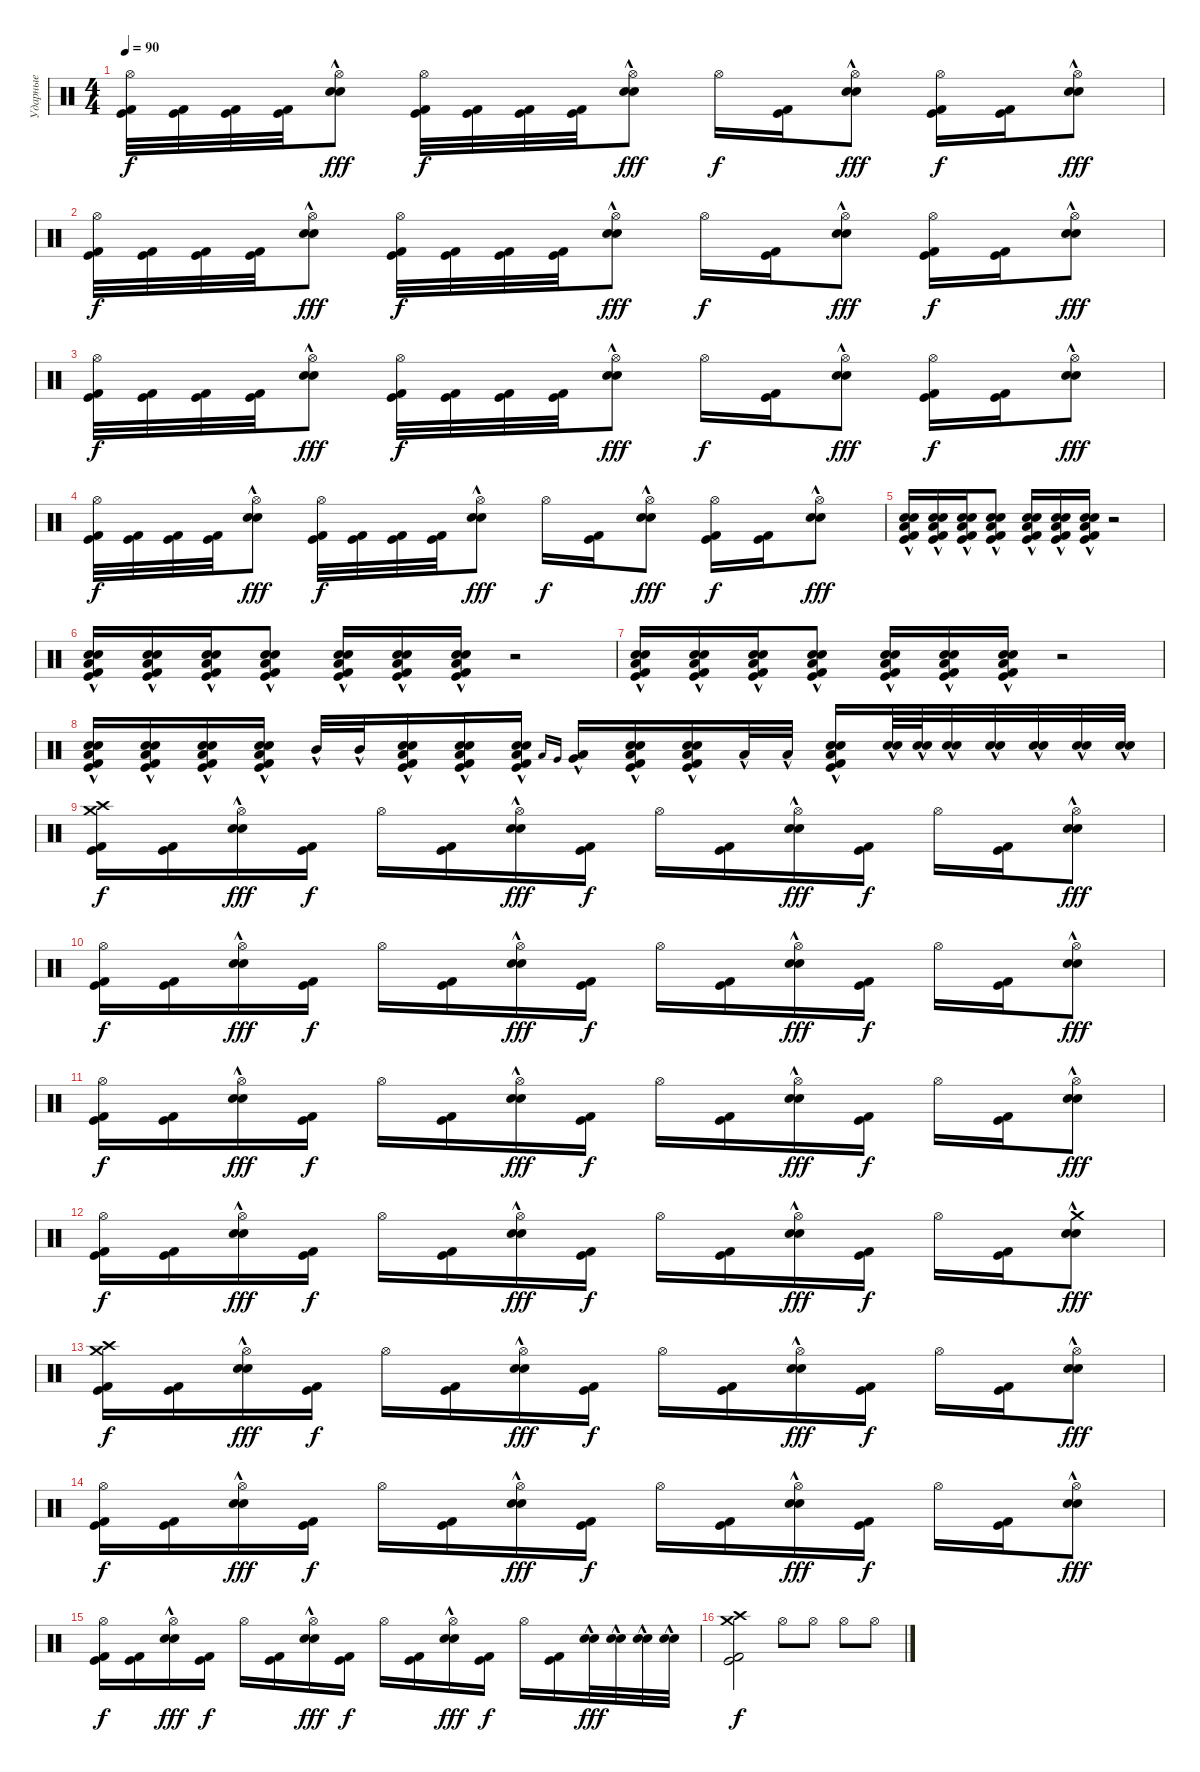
\track ("Ударные" "Ударные") {instrument percussion}
\staff {score}
\articulation defaults
\ts (4 4)
\tempo 90
\clef neutral
\ks c
("Hi-Hat (open)" "Kick (hit)" "Kick (hit) 2").32{dy f} ("Kick (hit)" "Kick (hit) 2").32 ("Kick (hit)" "Kick (hit) 2").32 ("Kick (hit)" "Kick (hit) 2").32 ("Hi-Hat (open)" "Snare (hit) 2"{hac} "Electric Snare (hit)"{hac}).8{dy fff} ("Hi-Hat (open)" "Kick (hit)" "Kick (hit) 2").32{dy f} ("Kick (hit)" "Kick (hit) 2").32 ("Kick (hit)" "Kick (hit) 2").32 ("Kick (hit)" "Kick (hit) 2").32 ("Hi-Hat (open)" "Snare (hit) 2"{hac} "Electric Snare (hit)"{hac}).8{dy fff} "Hi-Hat (open)".16{dy f} ("Kick (hit)" "Kick (hit) 2").16 ("Hi-Hat (open)" "Snare (hit) 2"{hac} "Electric Snare (hit)"{hac}).8{dy fff} ("Hi-Hat (open)" "Kick (hit)" "Kick (hit) 2").16{dy f} ("Kick (hit)" "Kick (hit) 2").16 ("Hi-Hat (open)" "Snare (hit) 2"{hac} "Electric Snare (hit)"{hac}).8{dy fff} |
("Hi-Hat (open)" "Kick (hit)" "Kick (hit) 2").32{dy f} ("Kick (hit)" "Kick (hit) 2").32 ("Kick (hit)" "Kick (hit) 2").32 ("Kick (hit)" "Kick (hit) 2").32 ("Hi-Hat (open)" "Snare (hit) 2"{hac} "Electric Snare (hit)"{hac}).8{dy fff} ("Hi-Hat (open)" "Kick (hit)" "Kick (hit) 2").32{dy f} ("Kick (hit)" "Kick (hit) 2").32 ("Kick (hit)" "Kick (hit) 2").32 ("Kick (hit)" "Kick (hit) 2").32 ("Hi-Hat (open)" "Snare (hit) 2"{hac} "Electric Snare (hit)"{hac}).8{dy fff} "Hi-Hat (open)".16{dy f} ("Kick (hit)" "Kick (hit) 2").16 ("Hi-Hat (open)" "Snare (hit) 2"{hac} "Electric Snare (hit)"{hac}).8{dy fff} ("Hi-Hat (open)" "Kick (hit)" "Kick (hit) 2").16{dy f} ("Kick (hit)" "Kick (hit) 2").16 ("Hi-Hat (open)" "Snare (hit) 2"{hac} "Electric Snare (hit)"{hac}).8{dy fff} |
("Hi-Hat (open)" "Kick (hit)" "Kick (hit) 2").32{dy f} ("Kick (hit)" "Kick (hit) 2").32 ("Kick (hit)" "Kick (hit) 2").32 ("Kick (hit)" "Kick (hit) 2").32 ("Hi-Hat (open)" "Snare (hit) 2"{hac} "Electric Snare (hit)"{hac}).8{dy fff} ("Hi-Hat (open)" "Kick (hit)" "Kick (hit) 2").32{dy f} ("Kick (hit)" "Kick (hit) 2").32 ("Kick (hit)" "Kick (hit) 2").32 ("Kick (hit)" "Kick (hit) 2").32 ("Hi-Hat (open)" "Snare (hit) 2"{hac} "Electric Snare (hit)"{hac}).8{dy fff} "Hi-Hat (open)".16{dy f} ("Kick (hit)" "Kick (hit) 2").16 ("Hi-Hat (open)" "Snare (hit) 2"{hac} "Electric Snare (hit)"{hac}).8{dy fff} ("Hi-Hat (open)" "Kick (hit)" "Kick (hit) 2").16{dy f} ("Kick (hit)" "Kick (hit) 2").16 ("Hi-Hat (open)" "Snare (hit) 2"{hac} "Electric Snare (hit)"{hac}).8{dy fff} |
("Hi-Hat (open)" "Kick (hit)" "Kick (hit) 2").32{dy f} ("Kick (hit)" "Kick (hit) 2").32 ("Kick (hit)" "Kick (hit) 2").32 ("Kick (hit)" "Kick (hit) 2").32 ("Hi-Hat (open)" "Snare (hit) 2"{hac} "Electric Snare (hit)"{hac}).8{dy fff} ("Hi-Hat (open)" "Kick (hit)" "Kick (hit) 2").32{dy f} ("Kick (hit)" "Kick (hit) 2").32 ("Kick (hit)" "Kick (hit) 2").32 ("Kick (hit)" "Kick (hit) 2").32 ("Hi-Hat (open)" "Snare (hit) 2"{hac} "Electric Snare (hit)"{hac}).8{dy fff} "Hi-Hat (open)".16{dy f} ("Kick (hit)" "Kick (hit) 2").16 ("Hi-Hat (open)" "Snare (hit) 2"{hac} "Electric Snare (hit)"{hac}).8{dy fff} ("Hi-Hat (open)" "Kick (hit)" "Kick (hit) 2").16{dy f} ("Kick (hit)" "Kick (hit) 2").16 ("Hi-Hat (open)" "Snare (hit) 2"{hac} "Electric Snare (hit)"{hac}).8{dy fff} |
("Kick (hit)" "Kick (hit) 2" "Snare (hit) 2"{hac} "Electric Snare (hit)"{hac} "Low Floor Tom (hit)"{hac}).16 ("Kick (hit)" "Kick (hit) 2" "Snare (hit) 2"{hac} "Electric Snare (hit)"{hac} "Low Floor Tom (hit)"{hac}).16 ("Kick (hit)" "Kick (hit) 2" "Snare (hit) 2"{hac} "Electric Snare (hit)"{hac} "Low Floor Tom (hit)"{hac}).16 ("Kick (hit)" "Kick (hit) 2" "Snare (hit) 2"{hac} "Electric Snare (hit)"{hac} "Low Floor Tom (hit)"{hac}).8 ("Kick (hit)" "Kick (hit) 2" "Snare (hit) 2"{hac} "Electric Snare (hit)"{hac} "Low Floor Tom (hit)"{hac}).16 ("Kick (hit)" "Kick (hit) 2" "Snare (hit) 2"{hac} "Electric Snare (hit)"{hac} "Low Floor Tom (hit)"{hac}).16 ("Kick (hit)" "Kick (hit) 2" "Snare (hit) 2"{hac} "Electric Snare (hit)"{hac} "Low Floor Tom (hit)"{hac}).16 r.2 |
("Kick (hit)" "Kick (hit) 2" "Snare (hit) 2"{hac} "Electric Snare (hit)"{hac} "Low Floor Tom (hit)"{hac}).16 ("Kick (hit)" "Kick (hit) 2" "Snare (hit) 2"{hac} "Electric Snare (hit)"{hac} "Low Floor Tom (hit)"{hac}).16 ("Kick (hit)" "Kick (hit) 2" "Snare (hit) 2"{hac} "Electric Snare (hit)"{hac} "Low Floor Tom (hit)"{hac}).16 ("Kick (hit)" "Kick (hit) 2" "Snare (hit) 2"{hac} "Electric Snare (hit)"{hac} "Low Floor Tom (hit)"{hac}).8 ("Kick (hit)" "Kick (hit) 2" "Snare (hit) 2"{hac} "Electric Snare (hit)"{hac} "Low Floor Tom (hit)"{hac}).16 ("Kick (hit)" "Kick (hit) 2" "Snare (hit) 2"{hac} "Electric Snare (hit)"{hac} "Low Floor Tom (hit)"{hac}).16 ("Kick (hit)" "Kick (hit) 2" "Snare (hit) 2"{hac} "Electric Snare (hit)"{hac} "Low Floor Tom (hit)"{hac}).16 r.2 |
("Kick (hit)" "Kick (hit) 2" "Snare (hit) 2"{hac} "Electric Snare (hit)"{hac} "Low Floor Tom (hit)"{hac}).16 ("Kick (hit)" "Kick (hit) 2" "Snare (hit) 2"{hac} "Electric Snare (hit)"{hac} "Low Floor Tom (hit)"{hac}).16 ("Kick (hit)" "Kick (hit) 2" "Snare (hit) 2"{hac} "Electric Snare (hit)"{hac} "Low Floor Tom (hit)"{hac}).16 ("Kick (hit)" "Kick (hit) 2" "Snare (hit) 2"{hac} "Electric Snare (hit)"{hac} "Low Floor Tom (hit)"{hac}).8 ("Kick (hit)" "Kick (hit) 2" "Snare (hit) 2"{hac} "Electric Snare (hit)"{hac} "Low Floor Tom (hit)"{hac}).16 ("Kick (hit)" "Kick (hit) 2" "Snare (hit) 2"{hac} "Electric Snare (hit)"{hac} "Low Floor Tom (hit)"{hac}).16 ("Kick (hit)" "Kick (hit) 2" "Snare (hit) 2"{hac} "Electric Snare (hit)"{hac} "Low Floor Tom (hit)"{hac}).16 r.2 |
("Kick (hit)" "Kick (hit) 2" "Snare (hit) 2"{hac} "Electric Snare (hit)"{hac} "Low Floor Tom (hit)"{hac}).16 ("Kick (hit)" "Kick (hit) 2" "Snare (hit) 2"{hac} "Electric Snare (hit)"{hac} "Low Floor Tom (hit)"{hac}).16 ("Kick (hit)" "Kick (hit) 2" "Snare (hit) 2"{hac} "Electric Snare (hit)"{hac} "Low Floor Tom (hit)"{hac}).16 ("Kick (hit)" "Kick (hit) 2" "Snare (hit) 2"{hac} "Electric Snare (hit)"{hac} "Low Floor Tom (hit)"{hac}).16 "Mid Tom (hit)"{hac}.32 "Mid Tom (hit)"{hac}.32 ("Kick (hit)" "Kick (hit) 2" "Snare (hit) 2"{hac} "Electric Snare (hit)"{hac} "Low Floor Tom (hit)"{hac}).16 ("Kick (hit)" "Kick (hit) 2" "Snare (hit) 2"{hac} "Electric Snare (hit)"{hac} "Low Floor Tom (hit)"{hac}).16 ("Kick (hit)" "Kick (hit) 2" "Snare (hit) 2"{hac} "Electric Snare (hit)"{hac} "Low Floor Tom (hit)"{hac}).16 "Low Tom (hit)".16{gr onbeat} "Very Low Tom (hit)".16{gr onbeat} ("Low Tom (hit)"{hac} "Very Low Tom (hit)"{hac}).16 ("Kick (hit)" "Kick (hit) 2" "Snare (hit) 2"{hac} "Electric Snare (hit)"{hac} "Low Floor Tom (hit)"{hac}).16 ("Kick (hit)" "Kick (hit) 2" "Snare (hit) 2"{hac} "Electric Snare (hit)"{hac} "Low Floor Tom (hit)"{hac}).16 "Low Floor Tom (hit)"{hac}.32 "Low Floor Tom (hit)"{hac}.32 ("Kick (hit)" "Kick (hit) 2" "Snare (hit) 2"{hac} "Electric Snare (hit)"{hac} "Low Floor Tom (hit)"{hac}).16 ("Snare (hit) 2"{hac} "Electric Snare (hit)"{hac}).64 ("Snare (hit) 2"{hac} "Electric Snare (hit)"{hac}).64 ("Snare (hit) 2"{hac} "Electric Snare (hit)"{hac}).32 ("Snare (hit) 2"{hac} "Electric Snare (hit)"{hac}).32 ("Snare (hit) 2"{hac} "Electric Snare (hit)"{hac}).32 ("Snare (hit) 2"{hac} "Electric Snare (hit)"{hac}).32 ("Snare (hit) 2"{hac} "Electric Snare (hit)"{hac}).32 |
("Crash high (hit)" "Kick (hit)" "Kick (hit) 2" "Crash medium (hit)").16{dy f} ("Kick (hit)" "Kick (hit) 2").16 ("Hi-Hat (open)" "Snare (hit) 2"{hac} "Electric Snare (hit)"{hac}).16{dy fff} ("Kick (hit)" "Kick (hit) 2").16{dy f} "Hi-Hat (open)".16 ("Kick (hit)" "Kick (hit) 2").16 ("Hi-Hat (open)" "Snare (hit) 2"{hac} "Electric Snare (hit)"{hac}).16{dy fff} ("Kick (hit)" "Kick (hit) 2").16{dy f} "Hi-Hat (open)".16 ("Kick (hit)" "Kick (hit) 2").16 ("Hi-Hat (open)" "Snare (hit) 2"{hac} "Electric Snare (hit)"{hac}).16{dy fff} ("Kick (hit)" "Kick (hit) 2").16{dy f} "Hi-Hat (open)".16 ("Kick (hit)" "Kick (hit) 2").16 ("Hi-Hat (open)" "Snare (hit) 2"{hac} "Electric Snare (hit)"{hac}).8{dy fff} |
("Hi-Hat (open)" "Kick (hit)" "Kick (hit) 2").16{dy f} ("Kick (hit)" "Kick (hit) 2").16 ("Hi-Hat (open)" "Snare (hit) 2"{hac} "Electric Snare (hit)"{hac}).16{dy fff} ("Kick (hit)" "Kick (hit) 2").16{dy f} "Hi-Hat (open)".16 ("Kick (hit)" "Kick (hit) 2").16 ("Hi-Hat (open)" "Snare (hit) 2"{hac} "Electric Snare (hit)"{hac}).16{dy fff} ("Kick (hit)" "Kick (hit) 2").16{dy f} "Hi-Hat (open)".16 ("Kick (hit)" "Kick (hit) 2").16 ("Hi-Hat (open)" "Snare (hit) 2"{hac} "Electric Snare (hit)"{hac}).16{dy fff} ("Kick (hit)" "Kick (hit) 2").16{dy f} "Hi-Hat (open)".16 ("Kick (hit)" "Kick (hit) 2").16 ("Hi-Hat (open)" "Snare (hit) 2"{hac} "Electric Snare (hit)"{hac}).8{dy fff} |
("Hi-Hat (open)" "Kick (hit)" "Kick (hit) 2").16{dy f} ("Kick (hit)" "Kick (hit) 2").16 ("Hi-Hat (open)" "Snare (hit) 2"{hac} "Electric Snare (hit)"{hac}).16{dy fff} ("Kick (hit)" "Kick (hit) 2").16{dy f} "Hi-Hat (open)".16 ("Kick (hit)" "Kick (hit) 2").16 ("Hi-Hat (open)" "Snare (hit) 2"{hac} "Electric Snare (hit)"{hac}).16{dy fff} ("Kick (hit)" "Kick (hit) 2").16{dy f} "Hi-Hat (open)".16 ("Kick (hit)" "Kick (hit) 2").16 ("Hi-Hat (open)" "Snare (hit) 2"{hac} "Electric Snare (hit)"{hac}).16{dy fff} ("Kick (hit)" "Kick (hit) 2").16{dy f} "Hi-Hat (open)".16 ("Kick (hit)" "Kick (hit) 2").16 ("Hi-Hat (open)" "Snare (hit) 2"{hac} "Electric Snare (hit)"{hac}).8{dy fff} |
("Hi-Hat (open)" "Kick (hit)" "Kick (hit) 2").16{dy f} ("Kick (hit)" "Kick (hit) 2").16 ("Hi-Hat (open)" "Snare (hit) 2"{hac} "Electric Snare (hit)"{hac}).16{dy fff} ("Kick (hit)" "Kick (hit) 2").16{dy f} "Hi-Hat (open)".16 ("Kick (hit)" "Kick (hit) 2").16 ("Hi-Hat (open)" "Snare (hit) 2"{hac} "Electric Snare (hit)"{hac}).16{dy fff} ("Kick (hit)" "Kick (hit) 2").16{dy f} "Hi-Hat (open)".16 ("Kick (hit)" "Kick (hit) 2").16 ("Hi-Hat (open)" "Snare (hit) 2"{hac} "Electric Snare (hit)"{hac}).16{dy fff} ("Kick (hit)" "Kick (hit) 2").16{dy f} "Hi-Hat (open)".16 ("Kick (hit)" "Kick (hit) 2").16 ("Crash medium (hit)" "Snare (hit) 2"{hac} "Electric Snare (hit)"{hac}).8{dy fff} |
("Crash high (hit)" "Kick (hit)" "Kick (hit) 2" "Crash medium (hit)").16{dy f} ("Kick (hit)" "Kick (hit) 2").16 ("Hi-Hat (open)" "Snare (hit) 2"{hac} "Electric Snare (hit)"{hac}).16{dy fff} ("Kick (hit)" "Kick (hit) 2").16{dy f} "Hi-Hat (open)".16 ("Kick (hit)" "Kick (hit) 2").16 ("Hi-Hat (open)" "Snare (hit) 2"{hac} "Electric Snare (hit)"{hac}).16{dy fff} ("Kick (hit)" "Kick (hit) 2").16{dy f} "Hi-Hat (open)".16 ("Kick (hit)" "Kick (hit) 2").16 ("Hi-Hat (open)" "Snare (hit) 2"{hac} "Electric Snare (hit)"{hac}).16{dy fff} ("Kick (hit)" "Kick (hit) 2").16{dy f} "Hi-Hat (open)".16 ("Kick (hit)" "Kick (hit) 2").16 ("Hi-Hat (open)" "Snare (hit) 2"{hac} "Electric Snare (hit)"{hac}).8{dy fff} |
("Hi-Hat (open)" "Kick (hit)" "Kick (hit) 2").16{dy f} ("Kick (hit)" "Kick (hit) 2").16 ("Hi-Hat (open)" "Snare (hit) 2"{hac} "Electric Snare (hit)"{hac}).16{dy fff} ("Kick (hit)" "Kick (hit) 2").16{dy f} "Hi-Hat (open)".16 ("Kick (hit)" "Kick (hit) 2").16 ("Hi-Hat (open)" "Snare (hit) 2"{hac} "Electric Snare (hit)"{hac}).16{dy fff} ("Kick (hit)" "Kick (hit) 2").16{dy f} "Hi-Hat (open)".16 ("Kick (hit)" "Kick (hit) 2").16 ("Hi-Hat (open)" "Snare (hit) 2"{hac} "Electric Snare (hit)"{hac}).16{dy fff} ("Kick (hit)" "Kick (hit) 2").16{dy f} "Hi-Hat (open)".16 ("Kick (hit)" "Kick (hit) 2").16 ("Hi-Hat (open)" "Snare (hit) 2"{hac} "Electric Snare (hit)"{hac}).8{dy fff} |
("Hi-Hat (open)" "Kick (hit)" "Kick (hit) 2").16{dy f} ("Kick (hit)" "Kick (hit) 2").16 ("Hi-Hat (open)" "Snare (hit) 2"{hac} "Electric Snare (hit)"{hac}).16{dy fff} ("Kick (hit)" "Kick (hit) 2").16{dy f} "Hi-Hat (open)".16 ("Kick (hit)" "Kick (hit) 2").16 ("Hi-Hat (open)" "Snare (hit) 2"{hac} "Electric Snare (hit)"{hac}).16{dy fff} ("Kick (hit)" "Kick (hit) 2").16{dy f} "Hi-Hat (open)".16 ("Kick (hit)" "Kick (hit) 2").16 ("Hi-Hat (open)" "Snare (hit) 2"{hac} "Electric Snare (hit)"{hac}).16{dy fff} ("Kick (hit)" "Kick (hit) 2").16{dy f} "Hi-Hat (open)".16 ("Kick (hit)" "Kick (hit) 2").16 ("Snare (hit) 2"{hac} "Electric Snare (hit)"{hac}).32{dy fff} ("Snare (hit) 2"{hac} "Electric Snare (hit)"{hac}).32 ("Snare (hit) 2"{hac} "Electric Snare (hit)"{hac}).32 ("Snare (hit) 2"{hac} "Electric Snare (hit)"{hac}).32 |
("Crash high (hit)" "Kick (hit)" "Kick (hit) 2" "Crash medium (hit)").2{dy f} "Hi-Hat (open)".8 "Hi-Hat (open)".8 "Hi-Hat (open)".8 "Hi-Hat (open)".8
